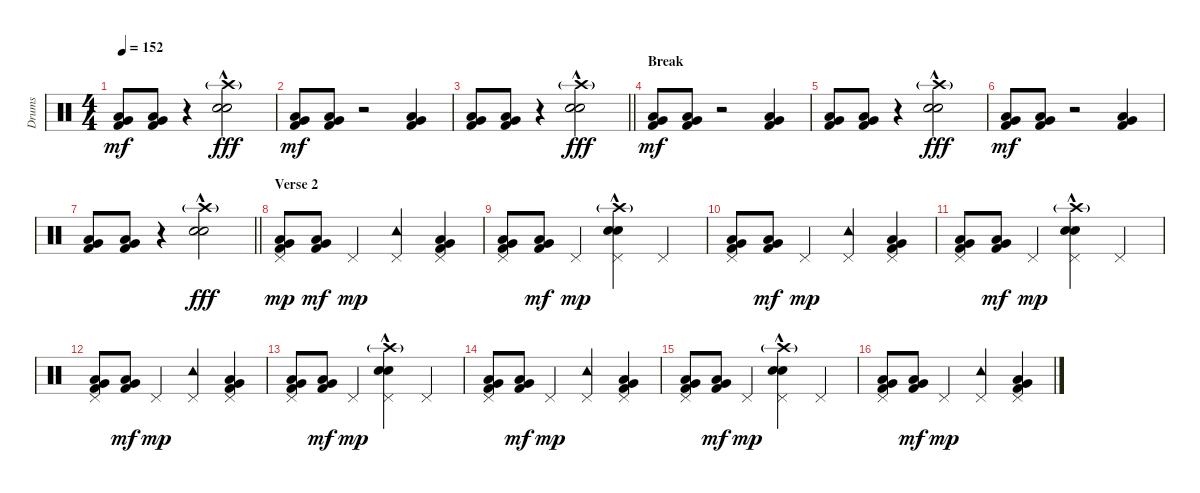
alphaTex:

\track ("Drums" "Drums") {instrument percussion}
\staff {score}
\articulation defaults
\ts (4 4)
\tempo 152
\clef neutral
\ks c
("Very Low Tom (hit)" "Low Floor Tom (hit)" "Kick (hit) 2").8{dy mf} ("Very Low Tom (hit)" "Low Floor Tom (hit)" "Kick (hit) 2").8 r.4 ("Crash high (hit)"{g} "Electric Snare (hit)"{hac} "Snare (hit) 2"{hac}).2{dy fff} |
("Very Low Tom (hit)" "Low Floor Tom (hit)" "Kick (hit) 2").8{dy mf} ("Very Low Tom (hit)" "Low Floor Tom (hit)" "Kick (hit) 2").8 r.2 ("Very Low Tom (hit)" "Low Floor Tom (hit)" "Kick (hit) 2").4 |
\barLineRight lightlight
("Very Low Tom (hit)" "Low Floor Tom (hit)" "Kick (hit) 2").8 ("Very Low Tom (hit)" "Low Floor Tom (hit)" "Kick (hit) 2").8 r.4 ("Crash high (hit)"{g} "Electric Snare (hit)"{hac} "Snare (hit) 2"{hac}).2{dy fff} |
\section ("" "Break")
("Very Low Tom (hit)" "Low Floor Tom (hit)" "Kick (hit) 2").8{dy mf} ("Very Low Tom (hit)" "Low Floor Tom (hit)" "Kick (hit) 2").8 r.2 ("Very Low Tom (hit)" "Low Floor Tom (hit)" "Kick (hit) 2").4 |
("Very Low Tom (hit)" "Low Floor Tom (hit)" "Kick (hit) 2").8 ("Very Low Tom (hit)" "Low Floor Tom (hit)" "Kick (hit) 2").8 r.4 ("Crash high (hit)"{g} "Electric Snare (hit)"{hac} "Snare (hit) 2"{hac}).2{dy fff} |
("Very Low Tom (hit)" "Low Floor Tom (hit)" "Kick (hit) 2").8{dy mf} ("Very Low Tom (hit)" "Low Floor Tom (hit)" "Kick (hit) 2").8 r.2 ("Very Low Tom (hit)" "Low Floor Tom (hit)" "Kick (hit) 2").4 |
\barLineRight lightlight
("Very Low Tom (hit)" "Low Floor Tom (hit)" "Kick (hit) 2").8 ("Very Low Tom (hit)" "Low Floor Tom (hit)" "Kick (hit) 2").8 r.4 ("Crash high (hit)"{g} "Electric Snare (hit)"{hac} "Snare (hit) 2"{hac}).2{dy fff} |
\section ("" "Verse 2")
("Very Low Tom (hit)" "Low Floor Tom (hit)" "Pedal Hi-Hat (hit)" "Kick (hit) 2").8{dy mp} ("Very Low Tom (hit)" "Low Floor Tom (hit)" "Kick (hit) 2").8{dy mf} "Pedal Hi-Hat (hit)".4{dy mp} ("Tambourine (hit)" "Pedal Hi-Hat (hit)").4 ("Very Low Tom (hit)" "Low Floor Tom (hit)" "Pedal Hi-Hat (hit)" "Kick (hit) 2").4 |
("Very Low Tom (hit)" "Low Floor Tom (hit)" "Pedal Hi-Hat (hit)" "Kick (hit) 2").8 ("Very Low Tom (hit)" "Low Floor Tom (hit)" "Kick (hit) 2").8{dy mf} "Pedal Hi-Hat (hit)".4{dy mp} ("Crash high (hit)"{g} "Electric Snare (hit)" "Snare (hit) 2"{hac} "Pedal Hi-Hat (hit)").4 "Pedal Hi-Hat (hit)".4 |
("Very Low Tom (hit)" "Low Floor Tom (hit)" "Pedal Hi-Hat (hit)" "Kick (hit) 2").8 ("Very Low Tom (hit)" "Low Floor Tom (hit)" "Kick (hit) 2").8{dy mf} "Pedal Hi-Hat (hit)".4{dy mp} ("Tambourine (hit)" "Pedal Hi-Hat (hit)").4 ("Very Low Tom (hit)" "Low Floor Tom (hit)" "Pedal Hi-Hat (hit)" "Kick (hit) 2").4 |
("Very Low Tom (hit)" "Low Floor Tom (hit)" "Pedal Hi-Hat (hit)" "Kick (hit) 2").8 ("Very Low Tom (hit)" "Low Floor Tom (hit)" "Kick (hit) 2").8{dy mf} "Pedal Hi-Hat (hit)".4{dy mp} ("Crash high (hit)"{g} "Electric Snare (hit)" "Snare (hit) 2"{hac} "Pedal Hi-Hat (hit)").4 "Pedal Hi-Hat (hit)".4 |
("Very Low Tom (hit)" "Low Floor Tom (hit)" "Pedal Hi-Hat (hit)" "Kick (hit) 2").8 ("Very Low Tom (hit)" "Low Floor Tom (hit)" "Kick (hit) 2").8{dy mf} "Pedal Hi-Hat (hit)".4{dy mp} ("Tambourine (hit)" "Pedal Hi-Hat (hit)").4 ("Very Low Tom (hit)" "Low Floor Tom (hit)" "Pedal Hi-Hat (hit)" "Kick (hit) 2").4 |
("Very Low Tom (hit)" "Low Floor Tom (hit)" "Pedal Hi-Hat (hit)" "Kick (hit) 2").8 ("Very Low Tom (hit)" "Low Floor Tom (hit)" "Kick (hit) 2").8{dy mf} "Pedal Hi-Hat (hit)".4{dy mp} ("Crash high (hit)"{g} "Electric Snare (hit)" "Snare (hit) 2"{hac} "Pedal Hi-Hat (hit)").4 "Pedal Hi-Hat (hit)".4 |
("Very Low Tom (hit)" "Low Floor Tom (hit)" "Pedal Hi-Hat (hit)" "Kick (hit) 2").8 ("Very Low Tom (hit)" "Low Floor Tom (hit)" "Kick (hit) 2").8{dy mf} "Pedal Hi-Hat (hit)".4{dy mp} ("Tambourine (hit)" "Pedal Hi-Hat (hit)").4 ("Very Low Tom (hit)" "Low Floor Tom (hit)" "Pedal Hi-Hat (hit)" "Kick (hit) 2").4 |
("Very Low Tom (hit)" "Low Floor Tom (hit)" "Pedal Hi-Hat (hit)" "Kick (hit) 2").8 ("Very Low Tom (hit)" "Low Floor Tom (hit)" "Kick (hit) 2").8{dy mf} "Pedal Hi-Hat (hit)".4{dy mp} ("Crash high (hit)"{g} "Electric Snare (hit)" "Snare (hit) 2"{hac} "Pedal Hi-Hat (hit)").4 "Pedal Hi-Hat (hit)".4 |
("Very Low Tom (hit)" "Low Floor Tom (hit)" "Pedal Hi-Hat (hit)" "Kick (hit) 2").8 ("Very Low Tom (hit)" "Low Floor Tom (hit)" "Kick (hit) 2").8{dy mf} "Pedal Hi-Hat (hit)".4{dy mp} ("Tambourine (hit)" "Pedal Hi-Hat (hit)").4 ("Very Low Tom (hit)" "Low Floor Tom (hit)" "Pedal Hi-Hat (hit)" "Kick (hit) 2").4
